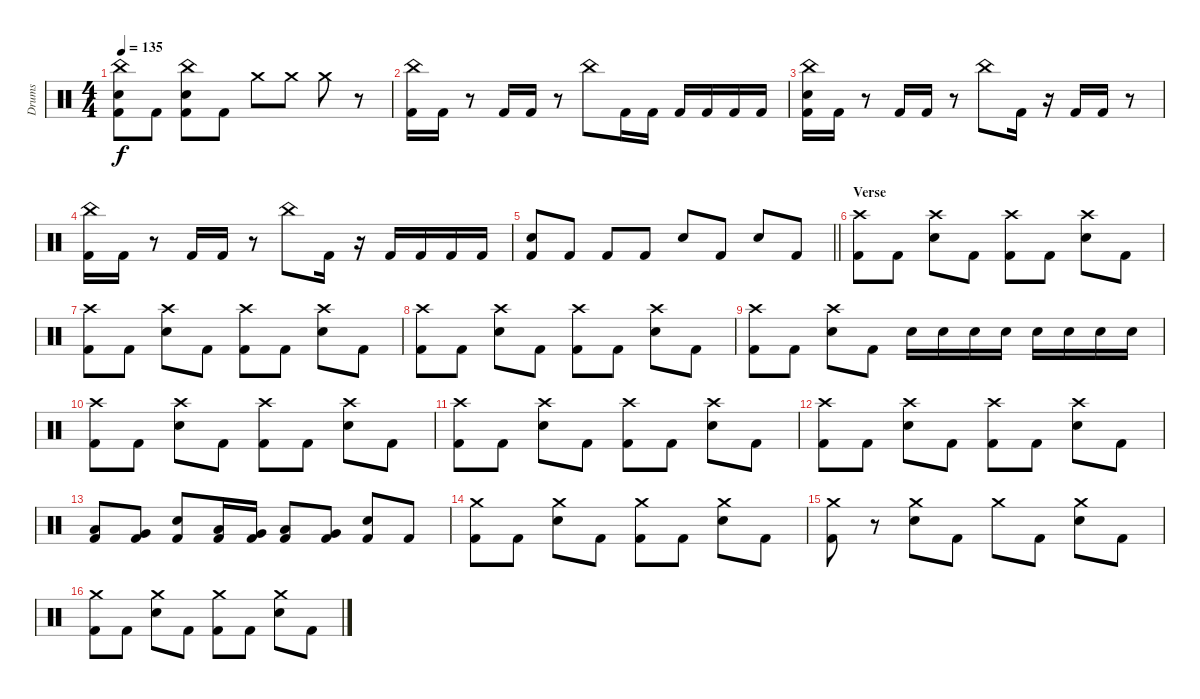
\track ("Drums" "Drums") {instrument percussion}
\staff {score}
\articulation defaults
\ts (4 4)
\tempo 135
\clef neutral
\ks c
("China (hit)" "Electric Snare (hit)" "Kick (hit) 2").8{dy f} "Kick (hit) 2".8 ("China (hit)" "Electric Snare (hit)" "Kick (hit) 2").8 "Kick (hit) 2".8 "Crash medium (hit)".8 "Crash medium (hit)".8 "Crash medium (hit)".8 r.8 |
("China (hit)" "Kick (hit) 2").16 "Kick (hit) 2".16 r.8 "Kick (hit) 2".16 "Kick (hit) 2".16 r.8 "China (hit)".8 "Kick (hit) 2".16 "Kick (hit) 2".16 "Kick (hit) 2".16 "Kick (hit) 2".16 "Kick (hit) 2".16 "Kick (hit) 2".16 |
("China (hit)" "Electric Snare (hit)" "Kick (hit) 2").16 "Kick (hit) 2".16 r.8 "Kick (hit) 2".16 "Kick (hit) 2".16 r.8 "China (hit)".8 "Kick (hit) 2".16 r.16 "Kick (hit) 2".16 "Kick (hit) 2".16 r.8 |
("China (hit)" "Kick (hit) 2").16 "Kick (hit) 2".16 r.8 "Kick (hit) 2".16 "Kick (hit) 2".16 r.8 "China (hit)".8 "Kick (hit) 2".16 r.16 "Kick (hit) 2".16 "Kick (hit) 2".16 "Kick (hit) 2".16 "Kick (hit) 2".16 |
\barLineRight lightlight
("Electric Snare (hit)" "Kick (hit) 2").8 "Kick (hit) 2".8 "Kick (hit) 2".8 "Kick (hit) 2".8 "Electric Snare (hit)".8 "Kick (hit) 2".8 "Electric Snare (hit)".8 "Kick (hit) 2".8 |
\section ("" "Verse")
("Crash high (hit)" "Kick (hit) 2").8 "Kick (hit) 2".8 ("Crash high (hit)" "Electric Snare (hit)").8 "Kick (hit) 2".8 ("Crash high (hit)" "Kick (hit) 2").8 "Kick (hit) 2".8 ("Crash high (hit)" "Electric Snare (hit)").8 "Kick (hit) 2".8 |
("Crash high (hit)" "Kick (hit) 2").8 "Kick (hit) 2".8 ("Crash high (hit)" "Electric Snare (hit)").8 "Kick (hit) 2".8 ("Crash high (hit)" "Kick (hit) 2").8 "Kick (hit) 2".8 ("Crash high (hit)" "Electric Snare (hit)").8 "Kick (hit) 2".8 |
("Crash high (hit)" "Kick (hit) 2").8 "Kick (hit) 2".8 ("Crash high (hit)" "Electric Snare (hit)").8 "Kick (hit) 2".8 ("Crash high (hit)" "Kick (hit) 2").8 "Kick (hit) 2".8 ("Crash high (hit)" "Electric Snare (hit)").8 "Kick (hit) 2".8 |
("Crash high (hit)" "Kick (hit) 2").8 "Kick (hit) 2".8 ("Crash high (hit)" "Electric Snare (hit)").8 "Kick (hit) 2".8 "Electric Snare (hit)".16 "Electric Snare (hit)".16 "Electric Snare (hit)".16 "Electric Snare (hit)".16 "Electric Snare (hit)".16 "Electric Snare (hit)".16 "Electric Snare (hit)".16 "Electric Snare (hit)".16 |
("Crash high (hit)" "Kick (hit) 2").8 "Kick (hit) 2".8 ("Crash high (hit)" "Electric Snare (hit)").8 "Kick (hit) 2".8 ("Crash high (hit)" "Kick (hit) 2").8 "Kick (hit) 2".8 ("Crash high (hit)" "Electric Snare (hit)").8 "Kick (hit) 2".8 |
("Crash high (hit)" "Kick (hit) 2").8 "Kick (hit) 2".8 ("Crash high (hit)" "Electric Snare (hit)").8 "Kick (hit) 2".8 ("Crash high (hit)" "Kick (hit) 2").8 "Kick (hit) 2".8 ("Crash high (hit)" "Electric Snare (hit)").8 "Kick (hit) 2".8 |
("Crash high (hit)" "Kick (hit) 2").8 "Kick (hit) 2".8 ("Crash high (hit)" "Electric Snare (hit)").8 "Kick (hit) 2".8 ("Crash high (hit)" "Kick (hit) 2").8 "Kick (hit) 2".8 ("Crash high (hit)" "Electric Snare (hit)").8 "Kick (hit) 2".8 |
("Low Tom (hit)" "Kick (hit) 2").8 ("Very Low Tom (hit)" "Kick (hit) 2").8 ("Electric Snare (hit)" "Kick (hit) 2").8 ("Low Tom (hit)" "Kick (hit) 2").16 ("Very Low Tom (hit)" "Kick (hit) 2").16 ("Low Tom (hit)" "Kick (hit) 2").8 ("Very Low Tom (hit)" "Kick (hit) 2").8 ("Electric Snare (hit)" "Kick (hit) 2").8 "Kick (hit) 2".8 |
("Crash medium (hit)" "Kick (hit) 2").8 "Kick (hit) 2".8 ("Crash medium (hit)" "Electric Snare (hit)").8 "Kick (hit) 2".8 ("Crash medium (hit)" "Kick (hit) 2").8 "Kick (hit) 2".8 ("Crash medium (hit)" "Electric Snare (hit)").8 "Kick (hit) 2".8 |
("Crash medium (hit)" "Kick (hit) 2").8 r.8 ("Crash medium (hit)" "Electric Snare (hit)").8 "Kick (hit) 2".8 "Crash medium (hit)".8 "Kick (hit) 2".8 ("Crash medium (hit)" "Electric Snare (hit)").8 "Kick (hit) 2".8 |
("Crash medium (hit)" "Kick (hit) 2").8 "Kick (hit) 2".8 ("Crash medium (hit)" "Electric Snare (hit)").8 "Kick (hit) 2".8 ("Crash medium (hit)" "Kick (hit) 2").8 "Kick (hit) 2".8 ("Crash medium (hit)" "Electric Snare (hit)").8 "Kick (hit) 2".8
